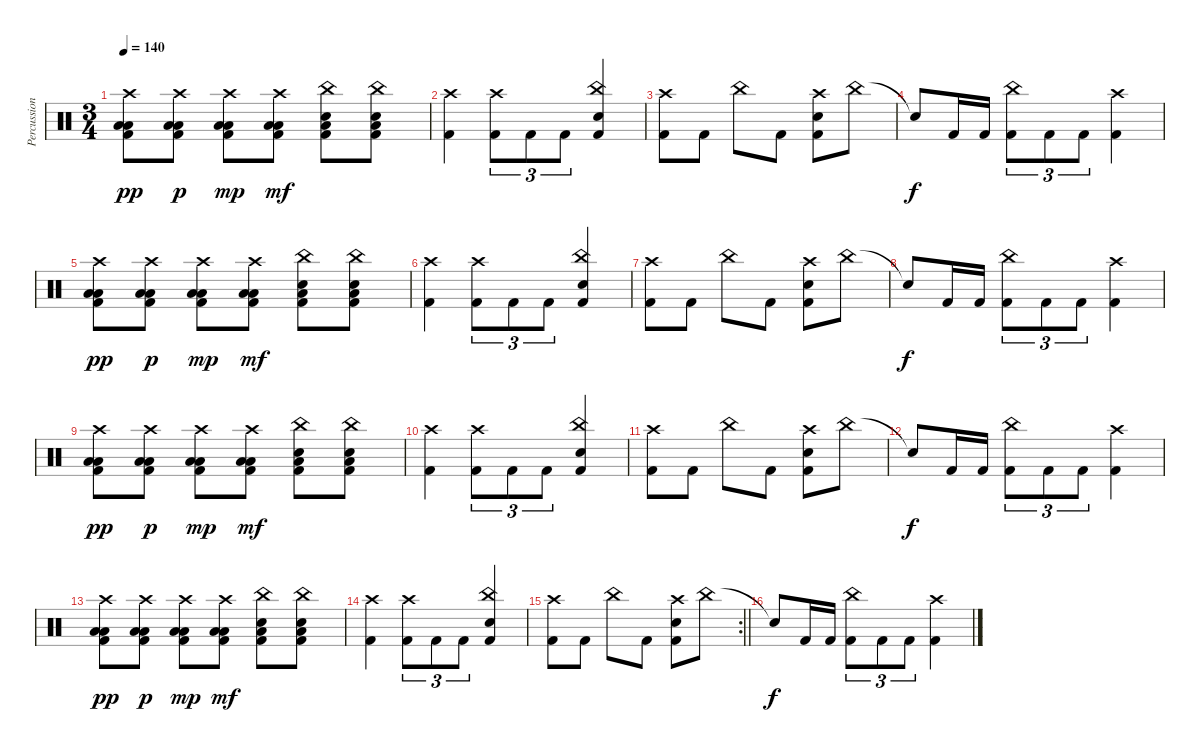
\track ("Percussions" "Percussion") {instrument percussion}
\staff {score}
\articulation defaults
\ts (3 4)
\tempo 140
\clef neutral
\ks c
("Crash high (hit)" "Low Tom (hit)" "Low Floor Tom (hit)" "Kick (hit) 2").8{dy pp} ("Crash high (hit)" "Low Tom (hit)" "Low Floor Tom (hit)" "Kick (hit) 2").8{dy p} ("Crash high (hit)" "Low Tom (hit)" "Low Floor Tom (hit)" "Kick (hit) 2").8{dy mp} ("Crash high (hit)" "Low Tom (hit)" "Low Floor Tom (hit)" "Kick (hit) 2").8{dy mf} ("China (hit)" "Electric Snare (hit)" "Low Floor Tom (hit)" "Kick (hit) 2").8 ("China (hit)" "Electric Snare (hit)" "Low Floor Tom (hit)" "Kick (hit) 2").8 |
("Crash high (hit)" "Kick (hit) 2").4 ("Crash high (hit)" "Kick (hit) 2").8{tu (3 2)} "Kick (hit) 2".8{tu (3 2)} "Kick (hit) 2".8{tu (3 2)} ("China (hit)" "Electric Snare (hit)" "Kick (hit) 2").4 |
("Crash high (hit)" "Kick (hit) 2").8 "Kick (hit) 2".8 "China (hit)".8 "Kick (hit) 2".8 ("Crash high (hit)" "Electric Snare (hit)" "Kick (hit) 2").8 "China (hit)".8 |
"Snare (hit)"{t}.8{dy f} "Kick (hit) 2".16 "Kick (hit) 2".16 ("China (hit)" "Kick (hit) 2").8{tu (3 2)} "Kick (hit) 2".8{tu (3 2)} "Kick (hit) 2".8{tu (3 2)} ("Crash high (hit)" "Kick (hit) 2").4 |
("Crash high (hit)" "Low Tom (hit)" "Low Floor Tom (hit)" "Kick (hit) 2").8{dy pp} ("Crash high (hit)" "Low Tom (hit)" "Low Floor Tom (hit)" "Kick (hit) 2").8{dy p} ("Crash high (hit)" "Low Tom (hit)" "Low Floor Tom (hit)" "Kick (hit) 2").8{dy mp} ("Crash high (hit)" "Low Tom (hit)" "Low Floor Tom (hit)" "Kick (hit) 2").8{dy mf} ("China (hit)" "Electric Snare (hit)" "Low Floor Tom (hit)" "Kick (hit) 2").8 ("China (hit)" "Electric Snare (hit)" "Low Floor Tom (hit)" "Kick (hit) 2").8 |
("Crash high (hit)" "Kick (hit) 2").4 ("Crash high (hit)" "Kick (hit) 2").8{tu (3 2)} "Kick (hit) 2".8{tu (3 2)} "Kick (hit) 2".8{tu (3 2)} ("China (hit)" "Electric Snare (hit)" "Kick (hit) 2").4 |
("Crash high (hit)" "Kick (hit) 2").8 "Kick (hit) 2".8 "China (hit)".8 "Kick (hit) 2".8 ("Crash high (hit)" "Electric Snare (hit)" "Kick (hit) 2").8 "China (hit)".8 |
"Snare (hit)"{t}.8{dy f} "Kick (hit) 2".16 "Kick (hit) 2".16 ("China (hit)" "Kick (hit) 2").8{tu (3 2)} "Kick (hit) 2".8{tu (3 2)} "Kick (hit) 2".8{tu (3 2)} ("Crash high (hit)" "Kick (hit) 2").4 |
("Crash high (hit)" "Low Tom (hit)" "Low Floor Tom (hit)" "Kick (hit) 2").8{dy pp} ("Crash high (hit)" "Low Tom (hit)" "Low Floor Tom (hit)" "Kick (hit) 2").8{dy p} ("Crash high (hit)" "Low Tom (hit)" "Low Floor Tom (hit)" "Kick (hit) 2").8{dy mp} ("Crash high (hit)" "Low Tom (hit)" "Low Floor Tom (hit)" "Kick (hit) 2").8{dy mf} ("China (hit)" "Electric Snare (hit)" "Low Floor Tom (hit)" "Kick (hit) 2").8 ("China (hit)" "Electric Snare (hit)" "Low Floor Tom (hit)" "Kick (hit) 2").8 |
("Crash high (hit)" "Kick (hit) 2").4 ("Crash high (hit)" "Kick (hit) 2").8{tu (3 2)} "Kick (hit) 2".8{tu (3 2)} "Kick (hit) 2".8{tu (3 2)} ("China (hit)" "Electric Snare (hit)" "Kick (hit) 2").4 |
("Crash high (hit)" "Kick (hit) 2").8 "Kick (hit) 2".8 "China (hit)".8 "Kick (hit) 2".8 ("Crash high (hit)" "Electric Snare (hit)" "Kick (hit) 2").8 "China (hit)".8 |
"Snare (hit)"{t}.8{dy f} "Kick (hit) 2".16 "Kick (hit) 2".16 ("China (hit)" "Kick (hit) 2").8{tu (3 2)} "Kick (hit) 2".8{tu (3 2)} "Kick (hit) 2".8{tu (3 2)} ("Crash high (hit)" "Kick (hit) 2").4 |
("Crash high (hit)" "Low Tom (hit)" "Low Floor Tom (hit)" "Kick (hit) 2").8{dy pp} ("Crash high (hit)" "Low Tom (hit)" "Low Floor Tom (hit)" "Kick (hit) 2").8{dy p} ("Crash high (hit)" "Low Tom (hit)" "Low Floor Tom (hit)" "Kick (hit) 2").8{dy mp} ("Crash high (hit)" "Low Tom (hit)" "Low Floor Tom (hit)" "Kick (hit) 2").8{dy mf} ("China (hit)" "Electric Snare (hit)" "Low Floor Tom (hit)" "Kick (hit) 2").8 ("China (hit)" "Electric Snare (hit)" "Low Floor Tom (hit)" "Kick (hit) 2").8 |
("Crash high (hit)" "Kick (hit) 2").4 ("Crash high (hit)" "Kick (hit) 2").8{tu (3 2)} "Kick (hit) 2".8{tu (3 2)} "Kick (hit) 2".8{tu (3 2)} ("China (hit)" "Electric Snare (hit)" "Kick (hit) 2").4 |
\rc 2
\barLineRight lightlight
("Crash high (hit)" "Kick (hit) 2").8 "Kick (hit) 2".8 "China (hit)".8 "Kick (hit) 2".8 ("Crash high (hit)" "Electric Snare (hit)" "Kick (hit) 2").8 "China (hit)".8 |
\section ("" "")
"Snare (hit)"{t}.8{dy f} "Kick (hit) 2".16 "Kick (hit) 2".16 ("China (hit)" "Kick (hit) 2").8{tu (3 2)} "Kick (hit) 2".8{tu (3 2)} "Kick (hit) 2".8{tu (3 2)} ("Crash high (hit)" "Kick (hit) 2").4
